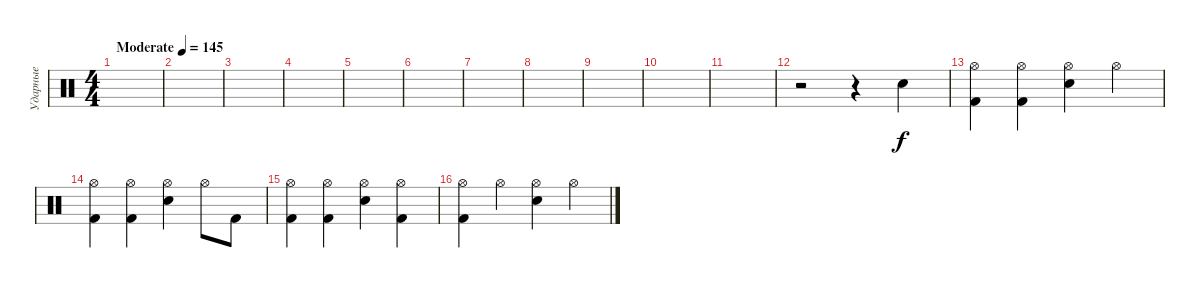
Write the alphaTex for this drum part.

\track ("Ударные" "Ударные") {instrument percussion}
\staff {score}
\articulation defaults
\ts (4 4)
\tempo (145 "Moderate")
\clef neutral
\ks c
|
|
|
|
|
|
|
|
|
|
|
r.2 r.4 "Electric Snare (hit)".4 |
("Hi-Hat (open)" "Kick (hit) 2").4 ("Hi-Hat (open)" "Kick (hit) 2").4 ("Hi-Hat (open)" "Electric Snare (hit)").4 "Hi-Hat (open)".4 |
("Hi-Hat (open)" "Kick (hit) 2").4 ("Hi-Hat (open)" "Kick (hit) 2").4 ("Hi-Hat (open)" "Electric Snare (hit)").4 "Hi-Hat (open)".8 "Kick (hit) 2".8 |
("Hi-Hat (open)" "Kick (hit) 2").4 ("Hi-Hat (open)" "Kick (hit) 2").4 ("Hi-Hat (open)" "Electric Snare (hit)").4 ("Hi-Hat (open)" "Kick (hit) 2").4 |
("Hi-Hat (open)" "Kick (hit) 2").4 "Hi-Hat (open)".4 ("Hi-Hat (open)" "Electric Snare (hit)").4 "Hi-Hat (open)".4
